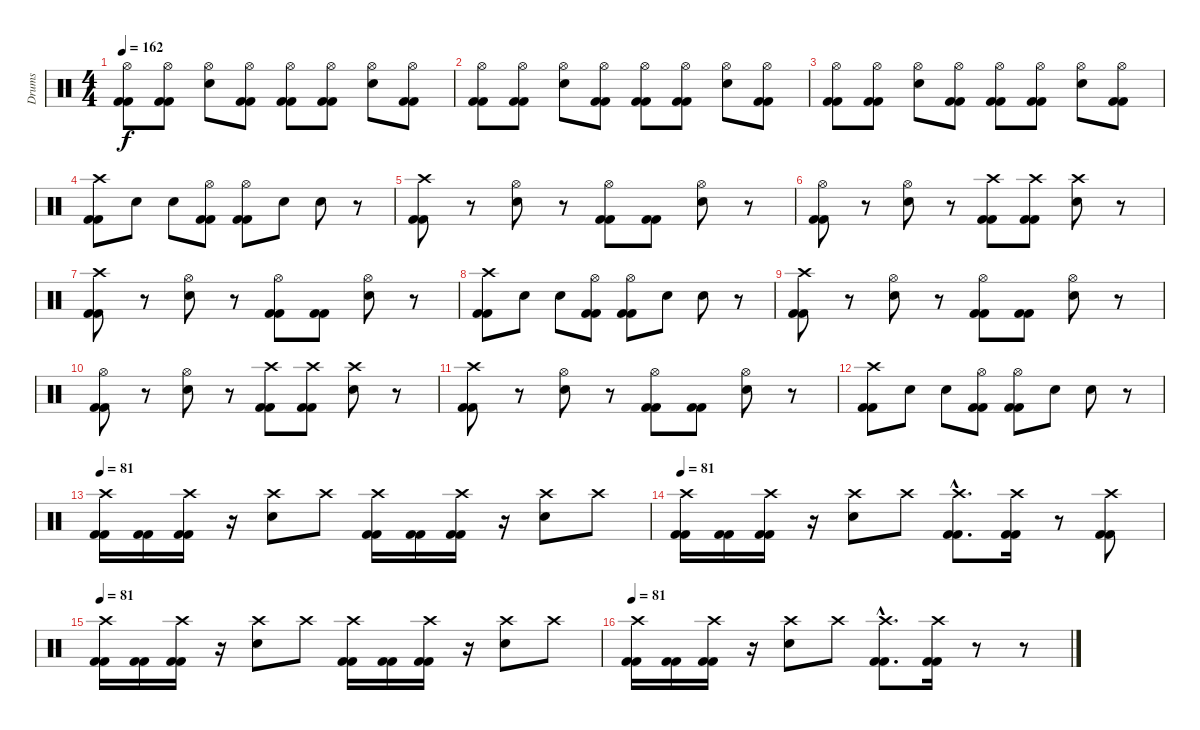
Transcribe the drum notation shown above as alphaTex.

\track ("Drums" "Drums") {instrument percussion}
\staff {score}
\articulation defaults
\ts (4 4)
\tempo 162
\clef neutral
\ks c
("Hi-Hat (open)" "Kick (hit) 2" "Kick (hit) 2").8{dy f} ("Hi-Hat (open)" "Kick (hit) 2" "Kick (hit) 2").8 ("Hi-Hat (open)" "Electric Snare (hit)").8 ("Hi-Hat (open)" "Kick (hit) 2" "Kick (hit) 2").8 ("Hi-Hat (open)" "Kick (hit) 2" "Kick (hit) 2").8 ("Hi-Hat (open)" "Kick (hit) 2" "Kick (hit) 2").8 ("Hi-Hat (open)" "Electric Snare (hit)").8 ("Hi-Hat (open)" "Kick (hit) 2" "Kick (hit) 2").8 |
("Hi-Hat (open)" "Kick (hit) 2" "Kick (hit) 2").8 ("Hi-Hat (open)" "Kick (hit) 2" "Kick (hit) 2").8 ("Hi-Hat (open)" "Electric Snare (hit)").8 ("Hi-Hat (open)" "Kick (hit) 2" "Kick (hit) 2").8 ("Hi-Hat (open)" "Kick (hit) 2" "Kick (hit) 2").8 ("Hi-Hat (open)" "Kick (hit) 2" "Kick (hit) 2").8 ("Hi-Hat (open)" "Electric Snare (hit)").8 ("Hi-Hat (open)" "Kick (hit) 2" "Kick (hit) 2").8 |
("Hi-Hat (open)" "Kick (hit) 2" "Kick (hit) 2").8 ("Hi-Hat (open)" "Kick (hit) 2" "Kick (hit) 2").8 ("Hi-Hat (open)" "Electric Snare (hit)").8 ("Hi-Hat (open)" "Kick (hit) 2" "Kick (hit) 2").8 ("Hi-Hat (open)" "Kick (hit) 2" "Kick (hit) 2").8 ("Hi-Hat (open)" "Kick (hit) 2" "Kick (hit) 2").8 ("Hi-Hat (open)" "Electric Snare (hit)").8 ("Hi-Hat (open)" "Kick (hit) 2" "Kick (hit) 2").8 |
("Crash high (hit)" "Kick (hit) 2" "Kick (hit) 2").8 "Electric Snare (hit)".8 "Electric Snare (hit)".8 ("Hi-Hat (open)" "Kick (hit) 2" "Kick (hit) 2").8 ("Hi-Hat (open)" "Kick (hit) 2" "Kick (hit) 2").8 "Electric Snare (hit)".8 "Electric Snare (hit)".8 r.8 |
("Crash high (hit)" "Kick (hit) 2" "Kick (hit) 2").8 r.8 ("Hi-Hat (open)" "Electric Snare (hit)").8 r.8 ("Hi-Hat (open)" "Kick (hit) 2" "Kick (hit) 2").8 ("Kick (hit) 2" "Kick (hit) 2").8 ("Hi-Hat (open)" "Electric Snare (hit)").8 r.8 |
("Hi-Hat (open)" "Kick (hit) 2" "Kick (hit) 2").8 r.8 ("Hi-Hat (open)" "Electric Snare (hit)").8 r.8 ("Crash high (hit)" "Kick (hit) 2" "Kick (hit) 2").8 ("Crash high (hit)" "Kick (hit) 2" "Kick (hit) 2").8 ("Crash high (hit)" "Electric Snare (hit)").8 r.8 |
("Crash high (hit)" "Kick (hit) 2" "Kick (hit) 2").8 r.8 ("Hi-Hat (open)" "Electric Snare (hit)").8 r.8 ("Hi-Hat (open)" "Kick (hit) 2" "Kick (hit) 2").8 ("Kick (hit) 2" "Kick (hit) 2").8 ("Hi-Hat (open)" "Electric Snare (hit)").8 r.8 |
("Crash high (hit)" "Kick (hit) 2" "Kick (hit) 2").8 "Electric Snare (hit)".8 "Electric Snare (hit)".8 ("Hi-Hat (open)" "Kick (hit) 2" "Kick (hit) 2").8 ("Hi-Hat (open)" "Kick (hit) 2" "Kick (hit) 2").8 "Electric Snare (hit)".8 "Electric Snare (hit)".8 r.8 |
("Crash high (hit)" "Kick (hit) 2" "Kick (hit) 2").8 r.8 ("Hi-Hat (open)" "Electric Snare (hit)").8 r.8 ("Hi-Hat (open)" "Kick (hit) 2" "Kick (hit) 2").8 ("Kick (hit) 2" "Kick (hit) 2").8 ("Hi-Hat (open)" "Electric Snare (hit)").8 r.8 |
("Hi-Hat (open)" "Kick (hit) 2" "Kick (hit) 2").8 r.8 ("Hi-Hat (open)" "Electric Snare (hit)").8 r.8 ("Crash high (hit)" "Kick (hit) 2" "Kick (hit) 2").8 ("Crash high (hit)" "Kick (hit) 2" "Kick (hit) 2").8 ("Crash high (hit)" "Electric Snare (hit)").8 r.8 |
("Crash high (hit)" "Kick (hit) 2" "Kick (hit) 2").8 r.8 ("Hi-Hat (open)" "Electric Snare (hit)").8 r.8 ("Hi-Hat (open)" "Kick (hit) 2" "Kick (hit) 2").8 ("Kick (hit) 2" "Kick (hit) 2").8 ("Hi-Hat (open)" "Electric Snare (hit)").8 r.8 |
("Crash high (hit)" "Kick (hit) 2" "Kick (hit) 2").8 "Electric Snare (hit)".8 "Electric Snare (hit)".8 ("Hi-Hat (open)" "Kick (hit) 2" "Kick (hit) 2").8 ("Hi-Hat (open)" "Kick (hit) 2" "Kick (hit) 2").8 "Electric Snare (hit)".8 "Electric Snare (hit)".8 r.8 |
\tempo 81
("Crash high (hit)" "Kick (hit) 2" "Kick (hit) 2").16 ("Kick (hit) 2" "Kick (hit) 2").16 ("Crash high (hit)" "Kick (hit) 2" "Kick (hit) 2").16 r.16 ("Crash high (hit)" "Electric Snare (hit)").8 "Crash high (hit)".8 ("Crash high (hit)" "Kick (hit) 2" "Kick (hit) 2").16 ("Kick (hit) 2" "Kick (hit) 2").16 ("Crash high (hit)" "Kick (hit) 2" "Kick (hit) 2").16 r.16 ("Crash high (hit)" "Electric Snare (hit)").8 "Crash high (hit)".8 |
\tempo 81
("Crash high (hit)" "Kick (hit) 2" "Kick (hit) 2").16 ("Kick (hit) 2" "Kick (hit) 2").16 ("Crash high (hit)" "Kick (hit) 2" "Kick (hit) 2").16 r.16 ("Crash high (hit)" "Electric Snare (hit)").8 "Crash high (hit)".8 ("Crash high (hit)"{hac} "Kick (hit) 2"{hac} "Kick (hit) 2"{hac}).8{d} ("Crash high (hit)" "Kick (hit) 2" "Kick (hit) 2").16 r.8 ("Crash high (hit)" "Kick (hit) 2" "Kick (hit) 2").8 |
\tempo 81
("Crash high (hit)" "Kick (hit) 2" "Kick (hit) 2").16 ("Kick (hit) 2" "Kick (hit) 2").16 ("Crash high (hit)" "Kick (hit) 2" "Kick (hit) 2").16 r.16 ("Crash high (hit)" "Electric Snare (hit)").8 "Crash high (hit)".8 ("Crash high (hit)" "Kick (hit) 2" "Kick (hit) 2").16 ("Kick (hit) 2" "Kick (hit) 2").16 ("Crash high (hit)" "Kick (hit) 2" "Kick (hit) 2").16 r.16 ("Crash high (hit)" "Electric Snare (hit)").8 "Crash high (hit)".8 |
\tempo 81
("Crash high (hit)" "Kick (hit) 2" "Kick (hit) 2").16 ("Kick (hit) 2" "Kick (hit) 2").16 ("Crash high (hit)" "Kick (hit) 2" "Kick (hit) 2").16 r.16 ("Crash high (hit)" "Electric Snare (hit)").8 "Crash high (hit)".8 ("Crash high (hit)"{hac} "Kick (hit) 2"{hac} "Kick (hit) 2"{hac}).8{d} ("Crash high (hit)" "Kick (hit) 2" "Kick (hit) 2").16 r.8 r.8
